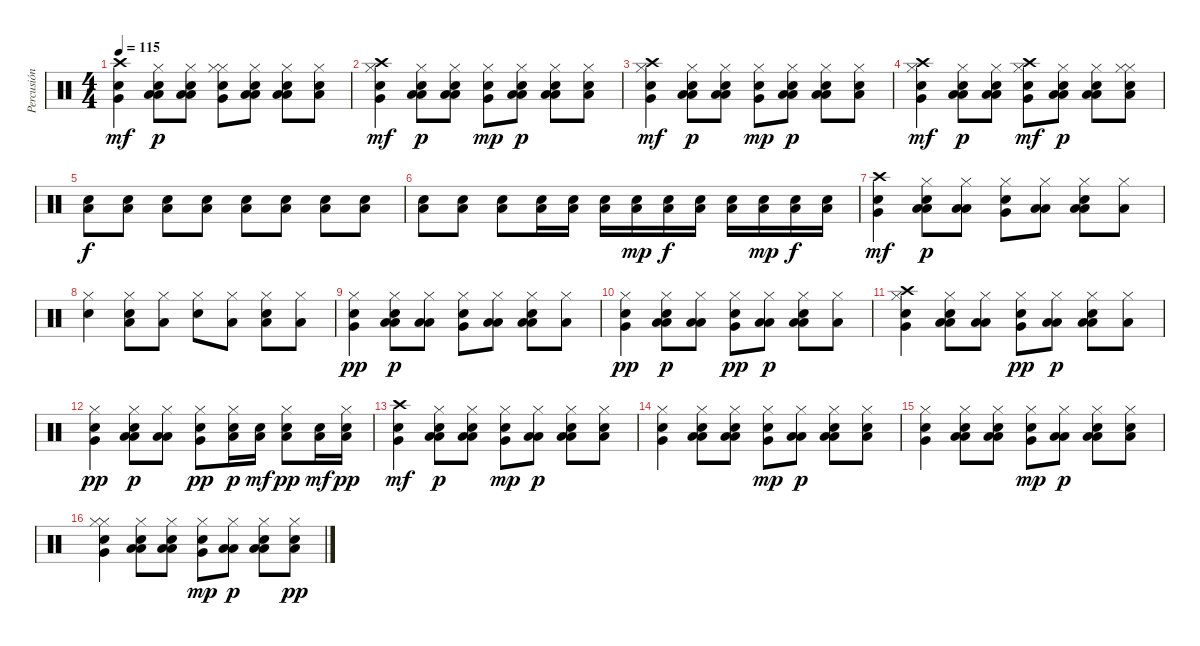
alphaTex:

\track ("Percusión" "Percusión") {instrument percussion}
\staff {score}
\articulation defaults
\ts (4 4)
\tempo 115
\clef neutral
\ks c
("Snare (hit) 2" "Very Low Tom (hit)" "Crash high (hit)").4{dy mf} ("Low Floor Tom (hit)" "Low Floor Tom (hit)" "Snare (hit) 2" "Hi-Hat (closed)").8{dy p} ("Low Floor Tom (hit)" "Low Floor Tom (hit)" "Snare (hit) 2" "Hi-Hat (closed)").8 ("Snare (hit) 2" "Very Low Tom (hit)" "Hi-Hat (closed)" "Hi-Hat (closed)").8 ("Low Floor Tom (hit)" "Low Floor Tom (hit)" "Snare (hit) 2" "Hi-Hat (closed)").8 ("Low Floor Tom (hit)" "Low Floor Tom (hit)" "Snare (hit) 2" "Hi-Hat (closed)").8 ("Low Floor Tom (hit)" "Snare (hit) 2" "Hi-Hat (closed)").8 |
("Snare (hit) 2" "Very Low Tom (hit)" "Hi-Hat (closed)" "Crash high (hit)").4{dy mf} ("Low Floor Tom (hit)" "Low Floor Tom (hit)" "Snare (hit) 2" "Hi-Hat (closed)").8{dy p} ("Low Floor Tom (hit)" "Low Floor Tom (hit)" "Snare (hit) 2" "Hi-Hat (closed)").8 ("Snare (hit) 2" "Very Low Tom (hit)" "Hi-Hat (closed)").8{dy mp} ("Low Floor Tom (hit)" "Low Floor Tom (hit)" "Snare (hit) 2" "Hi-Hat (closed)").8{dy p} ("Low Floor Tom (hit)" "Low Floor Tom (hit)" "Snare (hit) 2" "Hi-Hat (closed)").8 ("Low Floor Tom (hit)" "Snare (hit) 2" "Hi-Hat (closed)").8 |
("Snare (hit) 2" "Very Low Tom (hit)" "Hi-Hat (closed)" "Crash high (hit)").4{dy mf} ("Low Floor Tom (hit)" "Low Floor Tom (hit)" "Snare (hit) 2" "Hi-Hat (closed)").8{dy p} ("Low Floor Tom (hit)" "Low Floor Tom (hit)" "Hi-Hat (closed)" "Snare (hit) 2").8 ("Snare (hit) 2" "Very Low Tom (hit)" "Hi-Hat (closed)").8{dy mp} ("Low Floor Tom (hit)" "Low Floor Tom (hit)" "Snare (hit) 2" "Hi-Hat (closed)").8{dy p} ("Low Floor Tom (hit)" "Low Floor Tom (hit)" "Snare (hit) 2" "Hi-Hat (closed)").8 ("Low Floor Tom (hit)" "Snare (hit) 2" "Hi-Hat (closed)").8 |
("Snare (hit) 2" "Very Low Tom (hit)" "Hi-Hat (closed)" "Crash high (hit)").4{dy mf} ("Low Floor Tom (hit)" "Low Floor Tom (hit)" "Snare (hit) 2" "Hi-Hat (closed)").8{dy p} ("Low Floor Tom (hit)" "Low Floor Tom (hit)" "Hi-Hat (closed)" "Snare (hit) 2").8 ("Snare (hit) 2" "Very Low Tom (hit)" "Hi-Hat (closed)" "Crash high (hit)").8{dy mf} ("Low Floor Tom (hit)" "Low Floor Tom (hit)" "Snare (hit) 2" "Hi-Hat (closed)").8{dy p} ("Low Floor Tom (hit)" "Low Floor Tom (hit)" "Snare (hit) 2" "Hi-Hat (closed)").8 ("Low Floor Tom (hit)" "Snare (hit) 2" "Hi-Hat (closed)" "Hi-Hat (closed)").8 |
("Snare (hit) 2" "Low Floor Tom (hit)").8{dy f} ("Snare (hit) 2" "Low Floor Tom (hit)").8 ("Snare (hit) 2" "Low Floor Tom (hit)").8 ("Snare (hit) 2" "Low Floor Tom (hit)").8 ("Snare (hit) 2" "Low Floor Tom (hit)").8 ("Snare (hit) 2" "Low Floor Tom (hit)").8 ("Snare (hit) 2" "Low Floor Tom (hit)").8 ("Snare (hit) 2" "Low Floor Tom (hit)").8 |
("Snare (hit) 2" "Low Floor Tom (hit)").8 ("Snare (hit) 2" "Low Floor Tom (hit)").8 ("Snare (hit) 2" "Low Floor Tom (hit)").8 ("Snare (hit) 2" "Low Floor Tom (hit)").16 ("Snare (hit) 2" "Low Floor Tom (hit)").16 ("Snare (hit) 2" "Low Floor Tom (hit)").16 ("Snare (hit) 2" "Low Floor Tom (hit)").16{dy mp} ("Snare (hit) 2" "Low Floor Tom (hit)").16{dy f} ("Snare (hit) 2" "Low Floor Tom (hit)").16 ("Snare (hit) 2" "Low Floor Tom (hit)").16 ("Snare (hit) 2" "Low Floor Tom (hit)").16{dy mp} ("Snare (hit) 2" "Low Floor Tom (hit)").16{dy f} ("Snare (hit) 2" "Low Floor Tom (hit)").16 |
("Snare (hit) 2" "Very Low Tom (hit)" "Crash high (hit)").4{dy mf} ("Low Floor Tom (hit)" "Low Floor Tom (hit)" "Snare (hit) 2" "Hi-Hat (closed)").8{dy p} ("Low Floor Tom (hit)" "Low Floor Tom (hit)" "Hi-Hat (closed)").8 ("Snare (hit) 2" "Very Low Tom (hit)" "Hi-Hat (closed)").8 ("Low Floor Tom (hit)" "Low Floor Tom (hit)" "Hi-Hat (closed)").8 ("Low Floor Tom (hit)" "Low Floor Tom (hit)" "Snare (hit) 2" "Hi-Hat (closed)").8 ("Low Floor Tom (hit)" "Hi-Hat (closed)").8 |
("Snare (hit) 2" "Hi-Hat (closed)").4 ("Low Floor Tom (hit)" "Snare (hit) 2" "Hi-Hat (closed)").8 ("Low Floor Tom (hit)" "Hi-Hat (closed)").8 ("Snare (hit) 2" "Hi-Hat (closed)").8 ("Low Floor Tom (hit)" "Hi-Hat (closed)").8 ("Low Floor Tom (hit)" "Snare (hit) 2" "Hi-Hat (closed)").8 ("Low Floor Tom (hit)" "Hi-Hat (closed)").8 |
("Snare (hit) 2" "Very Low Tom (hit)" "Hi-Hat (closed)").4{dy pp} ("Low Floor Tom (hit)" "Low Floor Tom (hit)" "Snare (hit) 2" "Hi-Hat (closed)").8{dy p} ("Low Floor Tom (hit)" "Low Floor Tom (hit)" "Hi-Hat (closed)").8 ("Snare (hit) 2" "Very Low Tom (hit)" "Hi-Hat (closed)").8 ("Low Floor Tom (hit)" "Low Floor Tom (hit)" "Hi-Hat (closed)").8 ("Low Floor Tom (hit)" "Low Floor Tom (hit)" "Snare (hit) 2" "Hi-Hat (closed)").8 ("Low Floor Tom (hit)" "Hi-Hat (closed)").8 |
("Snare (hit) 2" "Very Low Tom (hit)" "Hi-Hat (closed)").4{dy pp} ("Low Floor Tom (hit)" "Low Floor Tom (hit)" "Snare (hit) 2" "Hi-Hat (closed)").8{dy p} ("Low Floor Tom (hit)" "Low Floor Tom (hit)" "Hi-Hat (closed)").8 ("Snare (hit) 2" "Very Low Tom (hit)" "Hi-Hat (closed)").8{dy pp} ("Low Floor Tom (hit)" "Low Floor Tom (hit)" "Hi-Hat (closed)").8{dy p} ("Low Floor Tom (hit)" "Low Floor Tom (hit)" "Snare (hit) 2" "Hi-Hat (closed)").8 ("Low Floor Tom (hit)" "Hi-Hat (closed)").8 |
("Snare (hit) 2" "Very Low Tom (hit)" "Crash high (hit)" "Hi-Hat (closed)").4 ("Low Floor Tom (hit)" "Low Floor Tom (hit)" "Snare (hit) 2" "Hi-Hat (closed)").8 ("Low Floor Tom (hit)" "Low Floor Tom (hit)" "Hi-Hat (closed)").8 ("Snare (hit) 2" "Very Low Tom (hit)" "Hi-Hat (closed)").8{dy pp} ("Low Floor Tom (hit)" "Low Floor Tom (hit)" "Hi-Hat (closed)").8{dy p} ("Low Floor Tom (hit)" "Low Floor Tom (hit)" "Snare (hit) 2" "Hi-Hat (closed)").8 ("Low Floor Tom (hit)" "Hi-Hat (closed)").8 |
("Snare (hit) 2" "Very Low Tom (hit)" "Hi-Hat (closed)").4{dy pp} ("Low Floor Tom (hit)" "Low Floor Tom (hit)" "Snare (hit) 2" "Hi-Hat (closed)").8{dy p} ("Low Floor Tom (hit)" "Low Floor Tom (hit)" "Hi-Hat (closed)").8 ("Snare (hit) 2" "Very Low Tom (hit)" "Hi-Hat (closed)").8{dy pp} ("Snare (hit) 2" "Low Floor Tom (hit)" "Hi-Hat (closed)").16{dy p} ("Snare (hit) 2" "Low Floor Tom (hit)").16{dy mf} ("Snare (hit) 2" "Low Floor Tom (hit)" "Hi-Hat (closed)").8{dy pp} ("Snare (hit) 2" "Low Floor Tom (hit)").16{dy mf} ("Snare (hit) 2" "Low Floor Tom (hit)" "Hi-Hat (closed)").16{dy pp} |
("Snare (hit) 2" "Very Low Tom (hit)" "Crash high (hit)").4{dy mf} ("Low Floor Tom (hit)" "Low Floor Tom (hit)" "Snare (hit) 2" "Hi-Hat (closed)").8{dy p} ("Low Floor Tom (hit)" "Low Floor Tom (hit)" "Snare (hit) 2" "Hi-Hat (closed)").8 ("Snare (hit) 2" "Very Low Tom (hit)" "Hi-Hat (closed)").8{dy mp} ("Low Floor Tom (hit)" "Low Floor Tom (hit)" "Hi-Hat (closed)").8{dy p} ("Low Floor Tom (hit)" "Low Floor Tom (hit)" "Snare (hit) 2" "Hi-Hat (closed)").8 ("Low Floor Tom (hit)" "Snare (hit) 2" "Hi-Hat (closed)").8 |
("Snare (hit) 2" "Very Low Tom (hit)" "Hi-Hat (closed)").4 ("Low Floor Tom (hit)" "Low Floor Tom (hit)" "Snare (hit) 2" "Hi-Hat (closed)").8 ("Low Floor Tom (hit)" "Low Floor Tom (hit)" "Snare (hit) 2" "Hi-Hat (closed)").8 ("Snare (hit) 2" "Very Low Tom (hit)" "Hi-Hat (closed)").8{dy mp} ("Low Floor Tom (hit)" "Low Floor Tom (hit)" "Hi-Hat (closed)").8{dy p} ("Low Floor Tom (hit)" "Low Floor Tom (hit)" "Snare (hit) 2" "Hi-Hat (closed)").8 ("Low Floor Tom (hit)" "Snare (hit) 2" "Hi-Hat (closed)").8 |
("Snare (hit) 2" "Very Low Tom (hit)" "Hi-Hat (closed)").4 ("Low Floor Tom (hit)" "Low Floor Tom (hit)" "Snare (hit) 2" "Hi-Hat (closed)").8 ("Low Floor Tom (hit)" "Low Floor Tom (hit)" "Hi-Hat (closed)" "Snare (hit) 2").8 ("Snare (hit) 2" "Very Low Tom (hit)" "Hi-Hat (closed)").8{dy mp} ("Low Floor Tom (hit)" "Low Floor Tom (hit)" "Hi-Hat (closed)").8{dy p} ("Low Floor Tom (hit)" "Low Floor Tom (hit)" "Snare (hit) 2" "Hi-Hat (closed)").8 ("Low Floor Tom (hit)" "Snare (hit) 2" "Hi-Hat (closed)").8 |
("Snare (hit) 2" "Very Low Tom (hit)" "Hi-Hat (closed)" "Hi-Hat (closed)").4 ("Low Floor Tom (hit)" "Low Floor Tom (hit)" "Snare (hit) 2" "Hi-Hat (closed)").8 ("Low Floor Tom (hit)" "Low Floor Tom (hit)" "Hi-Hat (closed)" "Snare (hit) 2").8 ("Snare (hit) 2" "Very Low Tom (hit)" "Hi-Hat (closed)").8{dy mp} ("Low Floor Tom (hit)" "Low Floor Tom (hit)" "Hi-Hat (closed)").8{dy p} ("Low Floor Tom (hit)" "Low Floor Tom (hit)" "Snare (hit) 2" "Hi-Hat (closed)").8 ("Low Floor Tom (hit)" "Snare (hit) 2" "Hi-Hat (closed)").8{dy pp}
